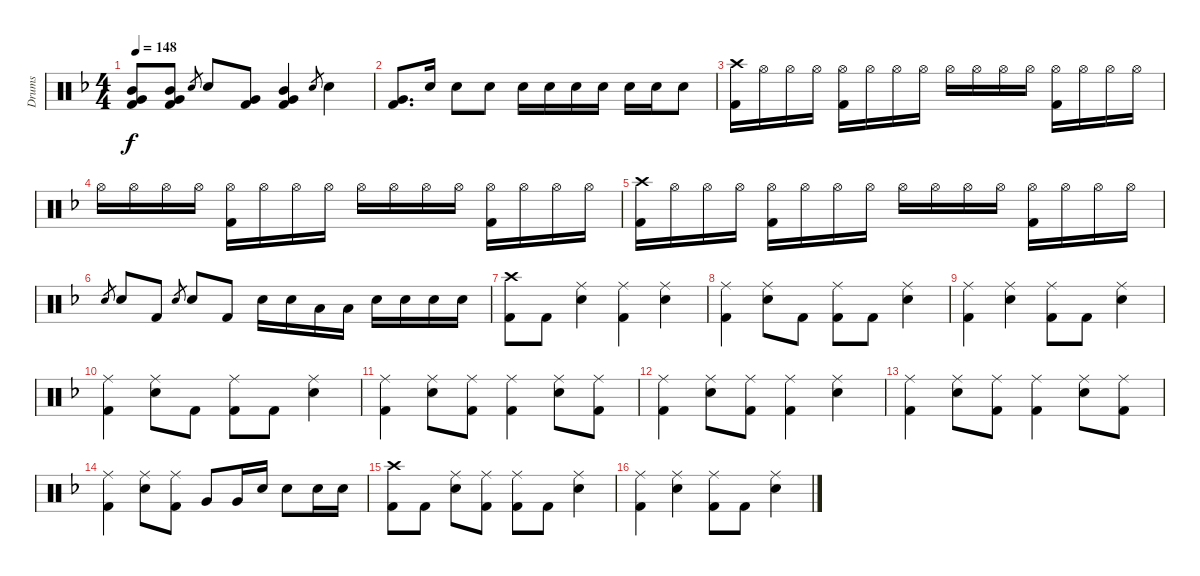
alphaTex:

\track ("Drums" "Drums") {instrument percussion}
\staff {score}
\articulation defaults
\ts (4 4)
\tempo 148
\clef neutral
\ks f
("Mid Tom (hit)" "Very Low Tom (hit)" "Kick (hit) 2").8{dy f} ("Mid Tom (hit)" "Very Low Tom (hit)" "Kick (hit) 2").8 "Snare (hit) 2".8{gr} "Snare (hit) 2".8 ("Very Low Tom (hit)" "Kick (hit) 2").8 ("Mid Tom (hit)" "Very Low Tom (hit)" "Kick (hit) 2").4 "Snare (hit) 2".8{gr} "Snare (hit) 2".4 |
("Very Low Tom (hit)" "Kick (hit) 2").8{d} "Snare (hit) 2".16 "Snare (hit) 2".8 "Snare (hit) 2".8 "Snare (hit) 2".16 "Snare (hit) 2".16 "Snare (hit) 2".16 "Snare (hit) 2".16 "Snare (hit) 2".16 "Snare (hit) 2".16 "Snare (hit) 2".8 |
("Crash high (hit)" "Kick (hit) 2").16 "Hi-Hat (open)".16 "Hi-Hat (open)".16 "Hi-Hat (open)".16 ("Hi-Hat (open)" "Kick (hit) 2").16 "Hi-Hat (open)".16 "Hi-Hat (open)".16 "Hi-Hat (open)".16 "Hi-Hat (open)".16 "Hi-Hat (open)".16 "Hi-Hat (open)".16 "Hi-Hat (open)".16 ("Hi-Hat (open)" "Kick (hit) 2").16 "Hi-Hat (open)".16 "Hi-Hat (open)".16 "Hi-Hat (open)".16 |
"Hi-Hat (open)".16 "Hi-Hat (open)".16 "Hi-Hat (open)".16 "Hi-Hat (open)".16 ("Hi-Hat (open)" "Kick (hit) 2").16 "Hi-Hat (open)".16 "Hi-Hat (open)".16 "Hi-Hat (open)".16 "Hi-Hat (open)".16 "Hi-Hat (open)".16 "Hi-Hat (open)".16 "Hi-Hat (open)".16 ("Hi-Hat (open)" "Kick (hit) 2").16 "Hi-Hat (open)".16 "Hi-Hat (open)".16 "Hi-Hat (open)".16 |
("Crash high (hit)" "Kick (hit) 2").16 "Hi-Hat (open)".16 "Hi-Hat (open)".16 "Hi-Hat (open)".16 ("Hi-Hat (open)" "Kick (hit) 2").16 "Hi-Hat (open)".16 "Hi-Hat (open)".16 "Hi-Hat (open)".16 "Hi-Hat (open)".16 "Hi-Hat (open)".16 "Hi-Hat (open)".16 "Hi-Hat (open)".16 ("Hi-Hat (open)" "Kick (hit) 2").16 "Hi-Hat (open)".16 "Hi-Hat (open)".16 "Hi-Hat (open)".16 |
"Snare (hit) 2".8{gr} "Snare (hit) 2".8 "Kick (hit) 2".8 "Snare (hit) 2".8{gr} "Snare (hit) 2".8 "Kick (hit) 2".8 "Snare (hit) 2".16 "Snare (hit) 2".16 "Low Tom (hit)".16 "Low Tom (hit)".16 "Snare (hit) 2".16 "Snare (hit) 2".16 "Snare (hit) 2".16 "Snare (hit) 2".16 |
("Crash high (hit)" "Kick (hit) 2").8 "Kick (hit) 2".8 ("Ride (middle)" "Snare (hit) 2").4 ("Ride (middle)" "Kick (hit) 2").4 ("Ride (middle)" "Snare (hit) 2").4 |
("Ride (middle)" "Kick (hit) 2").4 ("Ride (middle)" "Snare (hit) 2").8 "Kick (hit) 2".8 ("Ride (middle)" "Kick (hit) 2").8 "Kick (hit) 2".8 ("Ride (middle)" "Snare (hit) 2").4 |
("Ride (middle)" "Kick (hit) 2").4 ("Ride (middle)" "Snare (hit) 2").4 ("Ride (middle)" "Kick (hit) 2").8 "Kick (hit) 2".8 ("Ride (middle)" "Snare (hit) 2").4 |
("Ride (middle)" "Kick (hit) 2").4 ("Ride (middle)" "Snare (hit) 2").8 "Kick (hit) 2".8 ("Ride (middle)" "Kick (hit) 2").8 "Kick (hit) 2".8 ("Ride (middle)" "Snare (hit) 2").4 |
("Ride (middle)" "Kick (hit) 2").4 ("Ride (middle)" "Snare (hit) 2").8 ("Ride (middle)" "Kick (hit) 2").8 ("Ride (middle)" "Kick (hit) 2").4 ("Ride (middle)" "Snare (hit) 2").8 ("Ride (middle)" "Kick (hit) 2").8 |
("Ride (middle)" "Kick (hit) 2").4 ("Ride (middle)" "Snare (hit) 2").8 ("Ride (middle)" "Kick (hit) 2").8 ("Ride (middle)" "Kick (hit) 2").4 ("Ride (middle)" "Snare (hit) 2").4 |
("Ride (middle)" "Kick (hit) 2").4 ("Ride (middle)" "Snare (hit) 2").8 ("Ride (middle)" "Kick (hit) 2").8 ("Ride (middle)" "Kick (hit) 2").4 ("Ride (middle)" "Snare (hit) 2").8 ("Ride (middle)" "Kick (hit) 2").8 |
("Ride (middle)" "Kick (hit) 2").4 ("Ride (middle)" "Snare (hit) 2").8 ("Ride (middle)" "Kick (hit) 2").8 "Very Low Tom (hit)".8 "Very Low Tom (hit)".16 "Snare (hit) 2".16 "Snare (hit) 2".8 "Snare (hit) 2".16 "Snare (hit) 2".16 |
("Crash high (hit)" "Kick (hit) 2").8 "Kick (hit) 2".8 ("Ride (middle)" "Snare (hit) 2").8 ("Ride (middle)" "Kick (hit) 2").8 ("Ride (middle)" "Kick (hit) 2").8 "Kick (hit) 2".8 ("Ride (middle)" "Snare (hit) 2").4 |
("Ride (middle)" "Kick (hit) 2").4 ("Ride (middle)" "Snare (hit) 2").4 ("Ride (middle)" "Kick (hit) 2").8 "Kick (hit) 2".8 ("Ride (middle)" "Snare (hit) 2").4
